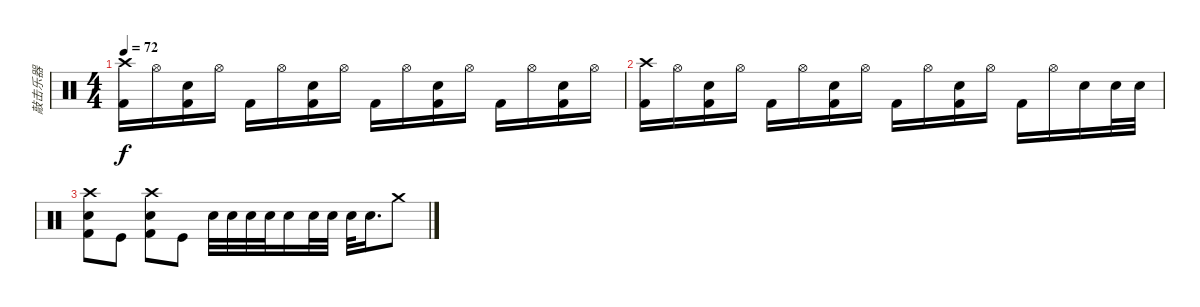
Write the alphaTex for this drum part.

\track ("敲击乐器" "敲击乐器") {instrument percussion}
\staff {score}
\articulation defaults
\ts (4 4)
\tempo 72
\clef neutral
\ks c
("Crash high (hit)" "Kick (hit) 2").16{dy f} "Hi-Hat (open)".16 ("Snare (hit) 2" "Kick (hit) 2").16 "Hi-Hat (open)".16 "Kick (hit) 2".16 "Hi-Hat (open)".16 ("Snare (hit) 2" "Kick (hit) 2").16 "Hi-Hat (open)".16 "Kick (hit) 2".16 "Hi-Hat (open)".16 ("Snare (hit) 2" "Kick (hit) 2").16 "Hi-Hat (open)".16 "Kick (hit) 2".16 "Hi-Hat (open)".16 ("Snare (hit) 2" "Kick (hit) 2").16 "Hi-Hat (open)".16 |
("Crash high (hit)" "Kick (hit) 2").16 "Hi-Hat (open)".16 ("Snare (hit) 2" "Kick (hit) 2").16 "Hi-Hat (open)".16 "Kick (hit) 2".16 "Hi-Hat (open)".16 ("Snare (hit) 2" "Kick (hit) 2").16 "Hi-Hat (open)".16 "Kick (hit) 2".16 "Hi-Hat (open)".16 ("Snare (hit) 2" "Kick (hit) 2").16 "Hi-Hat (open)".16 "Kick (hit) 2".16 "Hi-Hat (open)".16 "Snare (hit) 2".16 "Snare (hit) 2".32 "Snare (hit) 2".32 |
("Crash high (hit)" "Snare (hit) 2" "Kick (hit) 2").8 "Kick (hit)".8 ("Crash high (hit)" "Snare (hit) 2" "Kick (hit) 2").8 "Kick (hit)".8 "Snare (hit) 2".32 "Snare (hit) 2".32 "Snare (hit) 2".32 "Snare (hit) 2".32 "Snare (hit) 2".16 "Snare (hit) 2".32 "Snare (hit) 2".32 "Snare (hit) 2".32 "Snare (hit) 2".16{d} "Crash medium (hit)".8
